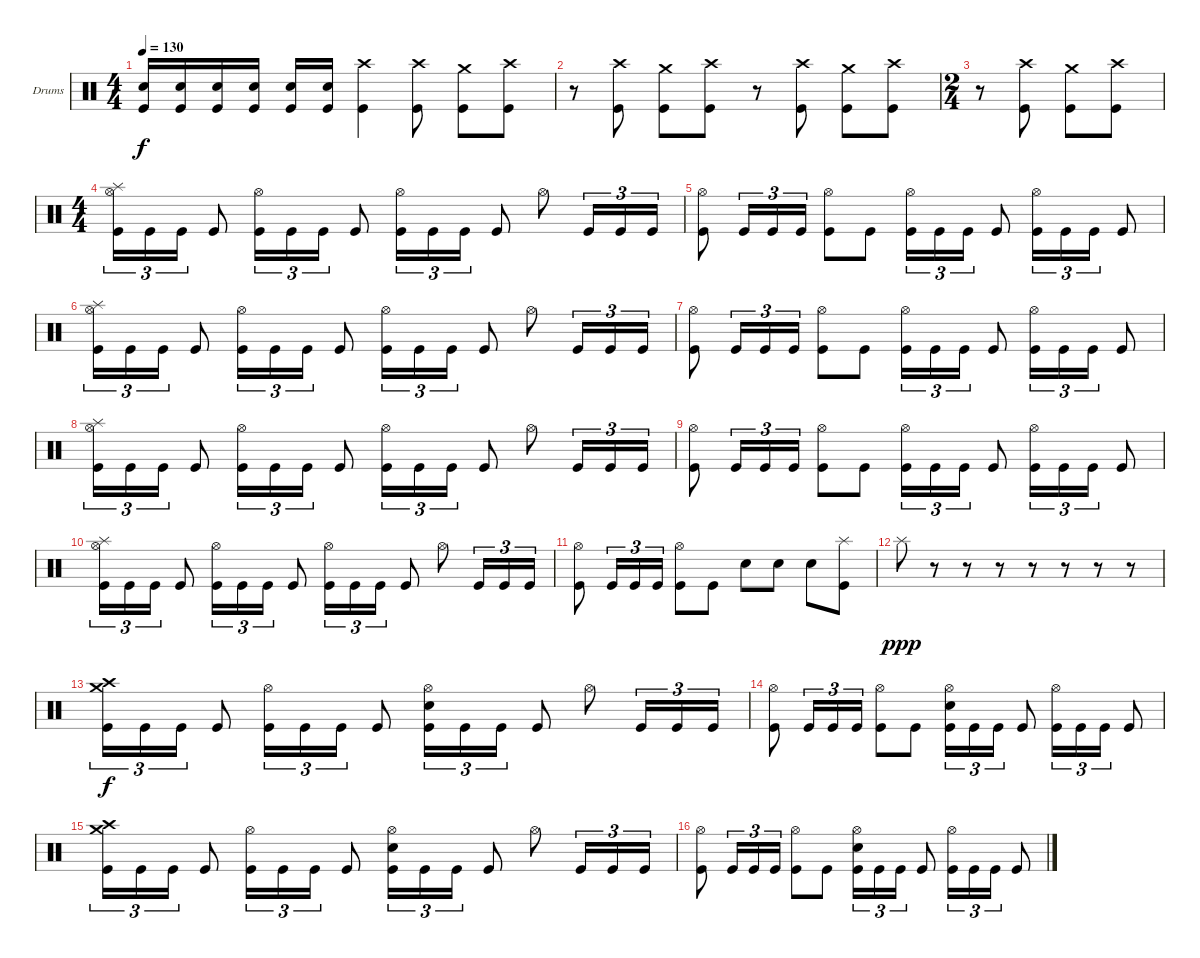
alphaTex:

\bracketExtendMode groupsimilarinstruments
\firstSystemTrackNameOrientation horizontal
\otherSystemsTrackNameOrientation horizontal
\track ("Drumkit" "Drums") {instrument percussion}
\staff {score}
\articulation defaults
\ts (4 4)
\tempo 130
\clef neutral
\ks c
("Snare (hit) 2" "Kick (hit)").16{dy f} ("Snare (hit) 2" "Kick (hit)").16 ("Snare (hit) 2" "Kick (hit)").16 ("Snare (hit) 2" "Kick (hit)").16 ("Snare (hit) 2" "Kick (hit)").16 ("Snare (hit) 2" "Kick (hit)").16 ("Kick (hit)" "Crash high (hit)").4 ("Kick (hit)" "Crash high (hit)").8 ("Crash medium (hit)" "Kick (hit)").8 ("Crash high (hit)" "Kick (hit)").8 |
r.8 ("Kick (hit)" "Crash high (hit)").8 ("Crash medium (hit)" "Kick (hit)").8 ("Crash high (hit)" "Kick (hit)").8 r.8 ("Kick (hit)" "Crash high (hit)").8 ("Crash medium (hit)" "Kick (hit)").8 ("Crash high (hit)" "Kick (hit)").8 |
\ts (2 4)
r.8 ("Kick (hit)" "Crash high (hit)").8 ("Crash medium (hit)" "Kick (hit)").8 ("Crash high (hit)" "Kick (hit)").8 |
\ts (4 4)
("Kick (hit)" "Hi-Hat (open)" "Splash (hit)").16{tu (3 2)} "Kick (hit)".16{tu (3 2)} "Kick (hit)".16{tu (3 2)} "Kick (hit)".8 ("Kick (hit)" "Hi-Hat (open)").16{tu (3 2)} "Kick (hit)".16{tu (3 2)} "Kick (hit)".16{tu (3 2)} "Kick (hit)".8 ("Kick (hit)" "Hi-Hat (open)").16{tu (3 2)} "Kick (hit)".16{tu (3 2)} "Kick (hit)".16{tu (3 2)} "Kick (hit)".8 "Hi-Hat (open)".8 "Kick (hit)".16{tu (3 2)} "Kick (hit)".16{tu (3 2)} "Kick (hit)".16{tu (3 2)} |
("Kick (hit)" "Hi-Hat (open)").8 "Kick (hit)".16{tu (3 2)} "Kick (hit)".16{tu (3 2)} "Kick (hit)".16{tu (3 2)} ("Kick (hit)" "Hi-Hat (open)").8 "Kick (hit)".8 ("Hi-Hat (open)" "Kick (hit)").16{tu (3 2)} "Kick (hit)".16{tu (3 2)} "Kick (hit)".16{tu (3 2)} "Kick (hit)".8 ("Kick (hit)" "Hi-Hat (open)").16{tu (3 2)} "Kick (hit)".16{tu (3 2)} "Kick (hit)".16{tu (3 2)} "Kick (hit)".8 |
("Kick (hit)" "Hi-Hat (open)" "Splash (hit)").16{tu (3 2)} "Kick (hit)".16{tu (3 2)} "Kick (hit)".16{tu (3 2)} "Kick (hit)".8 ("Kick (hit)" "Hi-Hat (open)").16{tu (3 2)} "Kick (hit)".16{tu (3 2)} "Kick (hit)".16{tu (3 2)} "Kick (hit)".8 ("Kick (hit)" "Hi-Hat (open)").16{tu (3 2)} "Kick (hit)".16{tu (3 2)} "Kick (hit)".16{tu (3 2)} "Kick (hit)".8 "Hi-Hat (open)".8 "Kick (hit)".16{tu (3 2)} "Kick (hit)".16{tu (3 2)} "Kick (hit)".16{tu (3 2)} |
("Kick (hit)" "Hi-Hat (open)").8 "Kick (hit)".16{tu (3 2)} "Kick (hit)".16{tu (3 2)} "Kick (hit)".16{tu (3 2)} ("Kick (hit)" "Hi-Hat (open)").8 "Kick (hit)".8 ("Hi-Hat (open)" "Kick (hit)").16{tu (3 2)} "Kick (hit)".16{tu (3 2)} "Kick (hit)".16{tu (3 2)} "Kick (hit)".8 ("Kick (hit)" "Hi-Hat (open)").16{tu (3 2)} "Kick (hit)".16{tu (3 2)} "Kick (hit)".16{tu (3 2)} "Kick (hit)".8 |
("Kick (hit)" "Hi-Hat (open)" "Splash (hit)").16{tu (3 2)} "Kick (hit)".16{tu (3 2)} "Kick (hit)".16{tu (3 2)} "Kick (hit)".8 ("Kick (hit)" "Hi-Hat (open)").16{tu (3 2)} "Kick (hit)".16{tu (3 2)} "Kick (hit)".16{tu (3 2)} "Kick (hit)".8 ("Kick (hit)" "Hi-Hat (open)").16{tu (3 2)} "Kick (hit)".16{tu (3 2)} "Kick (hit)".16{tu (3 2)} "Kick (hit)".8 "Hi-Hat (open)".8 "Kick (hit)".16{tu (3 2)} "Kick (hit)".16{tu (3 2)} "Kick (hit)".16{tu (3 2)} |
("Kick (hit)" "Hi-Hat (open)").8 "Kick (hit)".16{tu (3 2)} "Kick (hit)".16{tu (3 2)} "Kick (hit)".16{tu (3 2)} ("Kick (hit)" "Hi-Hat (open)").8 "Kick (hit)".8 ("Hi-Hat (open)" "Kick (hit)").16{tu (3 2)} "Kick (hit)".16{tu (3 2)} "Kick (hit)".16{tu (3 2)} "Kick (hit)".8 ("Kick (hit)" "Hi-Hat (open)").16{tu (3 2)} "Kick (hit)".16{tu (3 2)} "Kick (hit)".16{tu (3 2)} "Kick (hit)".8 |
("Kick (hit)" "Hi-Hat (open)" "Splash (hit)").16{tu (3 2)} "Kick (hit)".16{tu (3 2)} "Kick (hit)".16{tu (3 2)} "Kick (hit)".8 ("Kick (hit)" "Hi-Hat (open)").16{tu (3 2)} "Kick (hit)".16{tu (3 2)} "Kick (hit)".16{tu (3 2)} "Kick (hit)".8 ("Kick (hit)" "Hi-Hat (open)").16{tu (3 2)} "Kick (hit)".16{tu (3 2)} "Kick (hit)".16{tu (3 2)} "Kick (hit)".8 "Hi-Hat (open)".8 "Kick (hit)".16{tu (3 2)} "Kick (hit)".16{tu (3 2)} "Kick (hit)".16{tu (3 2)} |
("Kick (hit)" "Hi-Hat (open)").8 "Kick (hit)".16{tu (3 2)} "Kick (hit)".16{tu (3 2)} "Kick (hit)".16{tu (3 2)} ("Kick (hit)" "Hi-Hat (open)").8 "Kick (hit)".8 "Snare (hit) 2".8 "Snare (hit) 2".8 "Snare (hit) 2".8 ("Kick (hit)" "Splash (hit)").8 |
"Splash (hit)".8{dy ppp} r.8 r.8 r.8 r.8 r.8 r.8 r.8 |
("Kick (hit)" "Crash high (hit)" "Crash medium (hit)").16{tu (3 2) dy f} "Kick (hit)".16{tu (3 2)} "Kick (hit)".16{tu (3 2)} "Kick (hit)".8 ("Kick (hit)" "Hi-Hat (open)").16{tu (3 2)} "Kick (hit)".16{tu (3 2)} "Kick (hit)".16{tu (3 2)} "Kick (hit)".8 ("Kick (hit)" "Hi-Hat (open)" "Snare (hit) 2").16{tu (3 2)} "Kick (hit)".16{tu (3 2)} "Kick (hit)".16{tu (3 2)} "Kick (hit)".8 "Hi-Hat (open)".8 "Kick (hit)".16{tu (3 2)} "Kick (hit)".16{tu (3 2)} "Kick (hit)".16{tu (3 2)} |
("Kick (hit)" "Hi-Hat (open)").8 "Kick (hit)".16{tu (3 2)} "Kick (hit)".16{tu (3 2)} "Kick (hit)".16{tu (3 2)} ("Kick (hit)" "Hi-Hat (open)").8 "Kick (hit)".8 ("Hi-Hat (open)" "Kick (hit)" "Snare (hit) 2").16{tu (3 2)} "Kick (hit)".16{tu (3 2)} "Kick (hit)".16{tu (3 2)} "Kick (hit)".8 ("Kick (hit)" "Hi-Hat (open)").16{tu (3 2)} "Kick (hit)".16{tu (3 2)} "Kick (hit)".16{tu (3 2)} "Kick (hit)".8 |
("Kick (hit)" "Crash high (hit)" "Crash medium (hit)").16{tu (3 2)} "Kick (hit)".16{tu (3 2)} "Kick (hit)".16{tu (3 2)} "Kick (hit)".8 ("Kick (hit)" "Hi-Hat (open)").16{tu (3 2)} "Kick (hit)".16{tu (3 2)} "Kick (hit)".16{tu (3 2)} "Kick (hit)".8 ("Kick (hit)" "Hi-Hat (open)" "Snare (hit) 2").16{tu (3 2)} "Kick (hit)".16{tu (3 2)} "Kick (hit)".16{tu (3 2)} "Kick (hit)".8 "Hi-Hat (open)".8 "Kick (hit)".16{tu (3 2)} "Kick (hit)".16{tu (3 2)} "Kick (hit)".16{tu (3 2)} |
("Kick (hit)" "Hi-Hat (open)").8 "Kick (hit)".16{tu (3 2)} "Kick (hit)".16{tu (3 2)} "Kick (hit)".16{tu (3 2)} ("Kick (hit)" "Hi-Hat (open)").8 "Kick (hit)".8 ("Hi-Hat (open)" "Kick (hit)" "Snare (hit) 2").16{tu (3 2)} "Kick (hit)".16{tu (3 2)} "Kick (hit)".16{tu (3 2)} "Kick (hit)".8 ("Kick (hit)" "Hi-Hat (open)").16{tu (3 2)} "Kick (hit)".16{tu (3 2)} "Kick (hit)".16{tu (3 2)} "Kick (hit)".8
